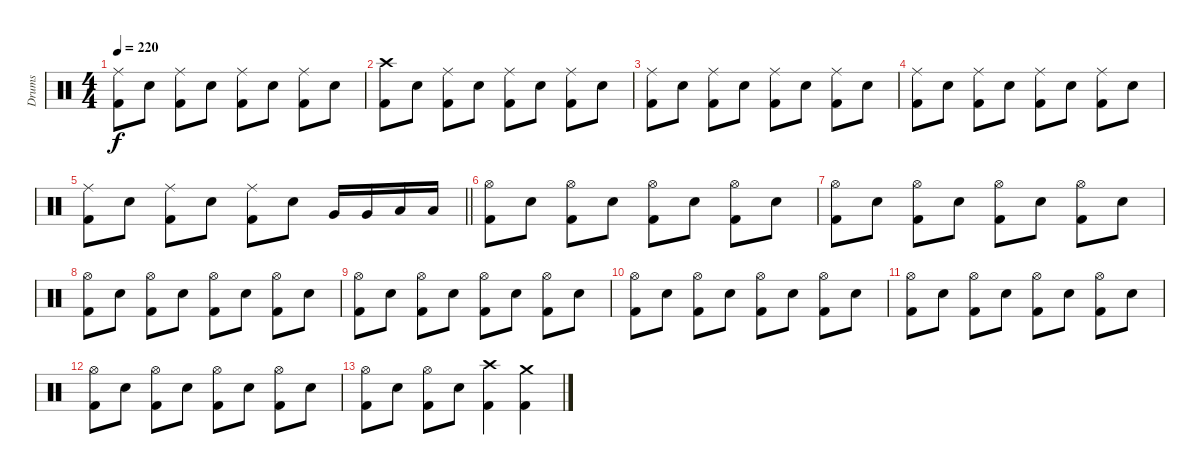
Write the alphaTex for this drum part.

\track ("Drums" "Drums") {instrument percussion}
\staff {score}
\articulation defaults
\ts (4 4)
\tempo 220
\clef neutral
\ks c
("Ride (middle)" "Kick (hit) 2").8{dy f} "Electric Snare (hit)".8 ("Ride (middle)" "Kick (hit) 2").8 "Electric Snare (hit)".8 ("Ride (middle)" "Kick (hit) 2").8 "Electric Snare (hit)".8 ("Ride (middle)" "Kick (hit) 2").8 "Electric Snare (hit)".8 |
("Crash high (hit)" "Kick (hit) 2").8 "Electric Snare (hit)".8 ("Ride (middle)" "Kick (hit) 2").8 "Electric Snare (hit)".8 ("Ride (middle)" "Kick (hit) 2").8 "Electric Snare (hit)".8 ("Ride (middle)" "Kick (hit) 2").8 "Electric Snare (hit)".8 |
("Ride (middle)" "Kick (hit) 2").8 "Electric Snare (hit)".8 ("Ride (middle)" "Kick (hit) 2").8 "Electric Snare (hit)".8 ("Ride (middle)" "Kick (hit) 2").8 "Electric Snare (hit)".8 ("Ride (middle)" "Kick (hit) 2").8 "Electric Snare (hit)".8 |
("Ride (middle)" "Kick (hit) 2").8 "Electric Snare (hit)".8 ("Ride (middle)" "Kick (hit) 2").8 "Electric Snare (hit)".8 ("Ride (middle)" "Kick (hit) 2").8 "Electric Snare (hit)".8 ("Ride (middle)" "Kick (hit) 2").8 "Electric Snare (hit)".8 |
\barLineRight lightlight
("Ride (middle)" "Kick (hit) 2").8 "Electric Snare (hit)".8 ("Ride (middle)" "Kick (hit) 2").8 "Electric Snare (hit)".8 ("Ride (middle)" "Kick (hit) 2").8 "Electric Snare (hit)".8 "Very Low Tom (hit)".16 "Very Low Tom (hit)".16 "Low Floor Tom (hit)".16 "Low Floor Tom (hit)".16 |
("Hi-Hat (open)" "Kick (hit) 2").8 "Electric Snare (hit)".8 ("Hi-Hat (open)" "Kick (hit) 2").8 "Electric Snare (hit)".8 ("Hi-Hat (open)" "Kick (hit) 2").8 "Electric Snare (hit)".8 ("Hi-Hat (open)" "Kick (hit) 2").8 "Electric Snare (hit)".8 |
("Hi-Hat (open)" "Kick (hit) 2").8 "Electric Snare (hit)".8 ("Hi-Hat (open)" "Kick (hit) 2").8 "Electric Snare (hit)".8 ("Hi-Hat (open)" "Kick (hit) 2").8 "Electric Snare (hit)".8 ("Hi-Hat (open)" "Kick (hit) 2").8 "Electric Snare (hit)".8 |
("Hi-Hat (open)" "Kick (hit) 2").8 "Electric Snare (hit)".8 ("Hi-Hat (open)" "Kick (hit) 2").8 "Electric Snare (hit)".8 ("Hi-Hat (open)" "Kick (hit) 2").8 "Electric Snare (hit)".8 ("Hi-Hat (open)" "Kick (hit) 2").8 "Electric Snare (hit)".8 |
("Hi-Hat (open)" "Kick (hit) 2").8 "Electric Snare (hit)".8 ("Hi-Hat (open)" "Kick (hit) 2").8 "Electric Snare (hit)".8 ("Hi-Hat (open)" "Kick (hit) 2").8 "Electric Snare (hit)".8 ("Hi-Hat (open)" "Kick (hit) 2").8 "Electric Snare (hit)".8 |
("Hi-Hat (open)" "Kick (hit) 2").8 "Electric Snare (hit)".8 ("Hi-Hat (open)" "Kick (hit) 2").8 "Electric Snare (hit)".8 ("Hi-Hat (open)" "Kick (hit) 2").8 "Electric Snare (hit)".8 ("Hi-Hat (open)" "Kick (hit) 2").8 "Electric Snare (hit)".8 |
("Hi-Hat (open)" "Kick (hit) 2").8 "Electric Snare (hit)".8 ("Hi-Hat (open)" "Kick (hit) 2").8 "Electric Snare (hit)".8 ("Hi-Hat (open)" "Kick (hit) 2").8 "Electric Snare (hit)".8 ("Hi-Hat (open)" "Kick (hit) 2").8 "Electric Snare (hit)".8 |
("Hi-Hat (open)" "Kick (hit) 2").8 "Electric Snare (hit)".8 ("Hi-Hat (open)" "Kick (hit) 2").8 "Electric Snare (hit)".8 ("Hi-Hat (open)" "Kick (hit) 2").8 "Electric Snare (hit)".8 ("Hi-Hat (open)" "Kick (hit) 2").8 "Electric Snare (hit)".8 |
("Hi-Hat (open)" "Kick (hit) 2").8 "Electric Snare (hit)".8 ("Hi-Hat (open)" "Kick (hit) 2").8 "Electric Snare (hit)".8 ("Crash high (hit)" "Kick (hit) 2").4 ("Crash medium (hit)" "Kick (hit) 2").4
